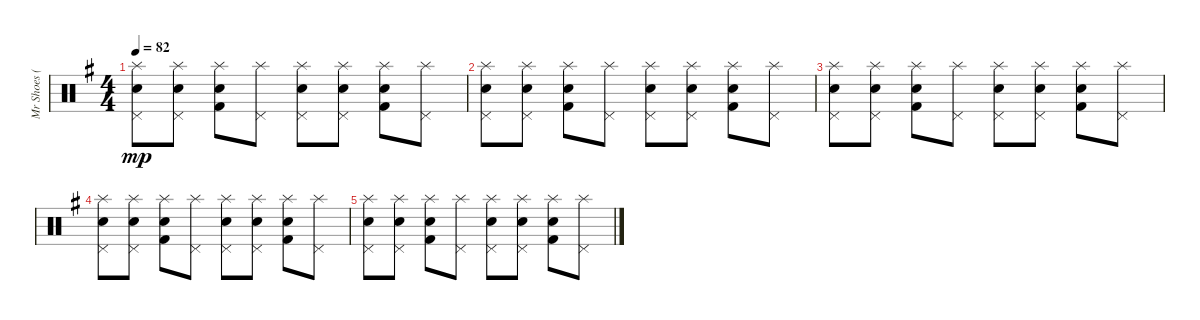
\track ("Mr Shoes (batterie)" "Mr Shoes (") {instrument percussion}
\staff {score}
\articulation defaults
\ts (4 4)
\tempo 82
\clef neutral
\ks g
("Electric Snare (hit)" "Pedal Hi-Hat (hit)" "Splash (hit)").8{dy mp} ("Electric Snare (hit)" "Pedal Hi-Hat (hit)" "Splash (hit)").8 ("Kick (hit) 2" "Snare (hit) 2" "Splash (hit)").8 ("Pedal Hi-Hat (hit)" "Splash (hit)").8 ("Electric Snare (hit)" "Pedal Hi-Hat (hit)" "Splash (hit)").8 ("Electric Snare (hit)" "Pedal Hi-Hat (hit)" "Splash (hit)").8 ("Kick (hit) 2" "Snare (hit) 2" "Splash (hit)").8 ("Pedal Hi-Hat (hit)" "Splash (hit)").8 |
("Electric Snare (hit)" "Pedal Hi-Hat (hit)" "Splash (hit)").8 ("Electric Snare (hit)" "Pedal Hi-Hat (hit)" "Splash (hit)").8 ("Kick (hit) 2" "Snare (hit) 2" "Splash (hit)").8 ("Pedal Hi-Hat (hit)" "Splash (hit)").8 ("Electric Snare (hit)" "Pedal Hi-Hat (hit)" "Splash (hit)").8 ("Electric Snare (hit)" "Pedal Hi-Hat (hit)" "Splash (hit)").8 ("Kick (hit) 2" "Snare (hit) 2" "Splash (hit)").8 ("Pedal Hi-Hat (hit)" "Splash (hit)").8 |
("Electric Snare (hit)" "Pedal Hi-Hat (hit)" "Splash (hit)").8 ("Electric Snare (hit)" "Pedal Hi-Hat (hit)" "Splash (hit)").8 ("Kick (hit) 2" "Snare (hit) 2" "Splash (hit)").8 ("Pedal Hi-Hat (hit)" "Splash (hit)").8 ("Electric Snare (hit)" "Pedal Hi-Hat (hit)" "Splash (hit)").8 ("Electric Snare (hit)" "Pedal Hi-Hat (hit)" "Splash (hit)").8 ("Kick (hit) 2" "Snare (hit) 2" "Splash (hit)").8 ("Pedal Hi-Hat (hit)" "Splash (hit)").8 |
("Electric Snare (hit)" "Pedal Hi-Hat (hit)" "Splash (hit)").8 ("Electric Snare (hit)" "Pedal Hi-Hat (hit)" "Splash (hit)").8 ("Kick (hit) 2" "Snare (hit) 2" "Splash (hit)").8 ("Pedal Hi-Hat (hit)" "Splash (hit)").8 ("Electric Snare (hit)" "Pedal Hi-Hat (hit)" "Splash (hit)").8 ("Electric Snare (hit)" "Pedal Hi-Hat (hit)" "Splash (hit)").8 ("Kick (hit) 2" "Snare (hit) 2" "Splash (hit)").8 ("Pedal Hi-Hat (hit)" "Splash (hit)").8 |
("Electric Snare (hit)" "Pedal Hi-Hat (hit)" "Splash (hit)").8 ("Electric Snare (hit)" "Pedal Hi-Hat (hit)" "Splash (hit)").8 ("Kick (hit) 2" "Snare (hit) 2" "Splash (hit)").8 ("Pedal Hi-Hat (hit)" "Splash (hit)").8 ("Electric Snare (hit)" "Pedal Hi-Hat (hit)" "Splash (hit)").8 ("Electric Snare (hit)" "Pedal Hi-Hat (hit)" "Splash (hit)").8 ("Kick (hit) 2" "Snare (hit) 2" "Splash (hit)").8 ("Pedal Hi-Hat (hit)" "Splash (hit)").8
